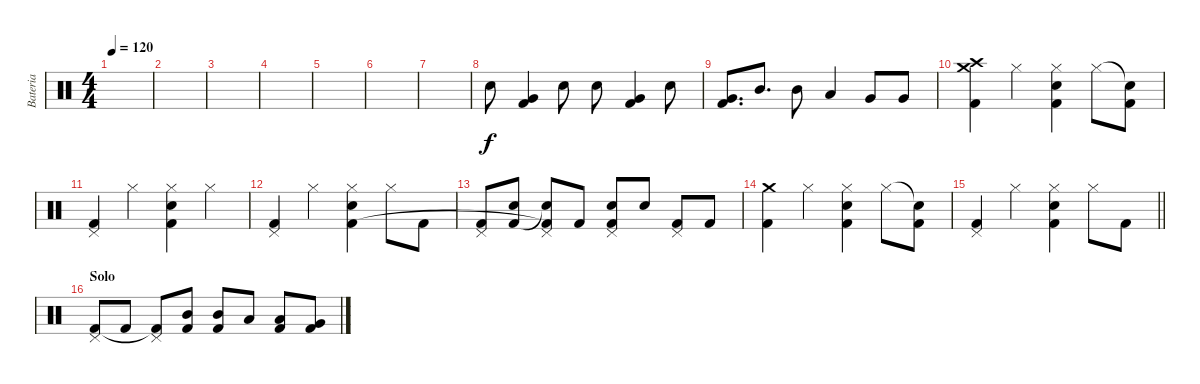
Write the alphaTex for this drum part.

\track ("Bateria" "Bateria") {instrument percussion}
\staff {score}
\articulation defaults
\ts (4 4)
\tempo 120
\clef neutral
\ks c
|
|
|
|
|
|
|
"Electric Snare (hit)".8 ("Very Low Tom (hit)" "Kick (hit) 2").4 "Electric Snare (hit)".8 "Electric Snare (hit)".8 ("Very Low Tom (hit)" "Kick (hit) 2").4 "Electric Snare (hit)".8 |
("Very Low Tom (hit)" "Kick (hit) 2").8{d} "Mid Tom (hit)".8{d} "Mid Tom (hit)".8 "Low Tom (hit)".4 "Very Low Tom (hit)".8 "Very Low Tom (hit)".8 |
("Crash medium (hit)" "Crash high (hit)" "Kick (hit) 2").4 "Hi-Hat (closed)".4 ("Hi-Hat (closed)" "Electric Snare (hit)" "Kick (hit) 2").4 "Hi-Hat (closed)".8 ("Snare (hit)"{t} "Kick (hit) 2").8 |
("Pedal Hi-Hat (hit)" "Kick (hit) 2").4 "Hi-Hat (closed)".4 ("Hi-Hat (closed)" "Electric Snare (hit)" "Kick (hit) 2").4 "Hi-Hat (closed)".4 |
("Pedal Hi-Hat (hit)" "Kick (hit) 2").4 "Hi-Hat (closed)".4 ("Hi-Hat (closed)" "Electric Snare (hit)" "Kick (hit) 2").4 "Hi-Hat (closed)".8 "Kick (hit) 2".8 |
("Pedal Hi-Hat (hit)" "Kick (hit) 2").8 ("Electric Snare (hit)" "Kick (hit) 2").8 ("Pedal Hi-Hat (hit)" "Snare (hit)"{t} "Kick (hit) 2"{t}).8 "Kick (hit) 2".8 ("Pedal Hi-Hat (hit)" "Electric Snare (hit)" "Kick (hit) 2").8 "Electric Snare (hit)".8 ("Pedal Hi-Hat (hit)" "Kick (hit) 2").8 "Kick (hit) 2".8 |
("Crash medium (hit)" "Kick (hit) 2").4 "Hi-Hat (closed)".4 ("Hi-Hat (closed)" "Electric Snare (hit)" "Kick (hit) 2").4 "Hi-Hat (closed)".8 ("Snare (hit)"{t} "Kick (hit) 2").8 |
\barLineRight lightlight
("Pedal Hi-Hat (hit)" "Kick (hit) 2").4 "Hi-Hat (closed)".4 ("Hi-Hat (closed)" "Electric Snare (hit)" "Kick (hit) 2").4 "Hi-Hat (closed)".8 "Kick (hit) 2".8 |
\section ("" "Solo")
("Pedal Hi-Hat (hit)" "Kick (hit) 2").8 "Kick (hit) 2".8 ("Pedal Hi-Hat (hit)" "Kick (hit) 2"{t}).8 ("Mid Tom (hit)" "Kick (hit) 2").8 ("Mid Tom (hit)" "Kick (hit) 2").8 "Low Tom (hit)".8 ("Low Tom (hit)" "Kick (hit) 2").8 ("Very Low Tom (hit)" "Kick (hit) 2").8
